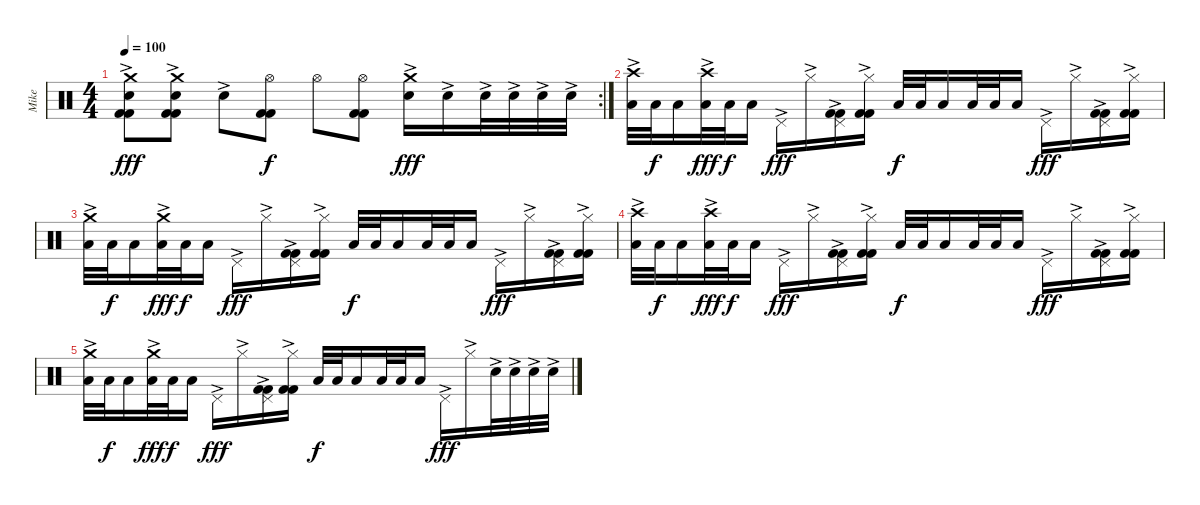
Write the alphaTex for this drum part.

\track ("Mike" "Mike") {instrument percussion}
\staff {score}
\articulation defaults
\rc 2
\ts (4 4)
\tempo 100
\clef neutral
\ks c
("Crash medium (hit)"{ac} "Electric Snare (hit)" "Kick (hit) 2" "Kick (hit) 2").8{dy fff} ("Crash medium (hit)"{ac} "Electric Snare (hit)" "Kick (hit) 2" "Kick (hit) 2").8 "Electric Snare (hit)"{ac}.8 ("Hi-Hat (open)" "Kick (hit) 2" "Kick (hit) 2").8{dy f} "Hi-Hat (open)".8 ("Hi-Hat (open)" "Kick (hit) 2" "Kick (hit) 2").8 ("Crash medium (hit)" "Electric Snare (hit)"{ac}).16{dy fff} "Electric Snare (hit)"{ac}.16 "Electric Snare (hit)"{ac}.32 "Electric Snare (hit)"{ac}.32 "Electric Snare (hit)"{ac}.32 "Electric Snare (hit)"{ac}.32 |
("Crash high (hit)"{ac} "Low Tom (hit)").32 "Low Tom (hit)".32{dy f} "Low Floor Tom (hit)".16 ("Crash high (hit)"{ac} "Low Tom (hit)").32{dy fff} "Low Tom (hit)".32{dy f} "Low Floor Tom (hit)".16 "Pedal Hi-Hat (hit)"{ac}.16{dy fff} "Hi-Hat (closed)"{ac}.16 ("Pedal Hi-Hat (hit)"{ac} "Kick (hit) 2" "Kick (hit) 2").16 ("Hi-Hat (closed)"{ac} "Kick (hit) 2" "Kick (hit) 2").16 "Low Tom (hit)".32{dy f} "Low Tom (hit)".32 "Low Floor Tom (hit)".16 "Low Tom (hit)".32 "Low Tom (hit)".32 "Low Floor Tom (hit)".16 "Pedal Hi-Hat (hit)"{ac}.16{dy fff} "Hi-Hat (closed)"{ac}.16 ("Pedal Hi-Hat (hit)"{ac} "Kick (hit) 2" "Kick (hit) 2").16 ("Hi-Hat (closed)"{ac} "Kick (hit) 2" "Kick (hit) 2").16 |
("Crash medium (hit)"{ac} "Low Tom (hit)").32 "Low Tom (hit)".32{dy f} "Low Floor Tom (hit)".16 ("Crash medium (hit)"{ac} "Low Tom (hit)").32{dy fff} "Low Tom (hit)".32{dy f} "Low Floor Tom (hit)".16 "Pedal Hi-Hat (hit)"{ac}.16{dy fff} "Hi-Hat (closed)"{ac}.16 ("Pedal Hi-Hat (hit)"{ac} "Kick (hit) 2" "Kick (hit) 2").16 ("Hi-Hat (closed)"{ac} "Kick (hit) 2" "Kick (hit) 2").16 "Low Tom (hit)".32{dy f} "Low Tom (hit)".32 "Low Floor Tom (hit)".16 "Low Tom (hit)".32 "Low Tom (hit)".32 "Low Floor Tom (hit)".16 "Pedal Hi-Hat (hit)"{ac}.16{dy fff} "Hi-Hat (closed)"{ac}.16 ("Pedal Hi-Hat (hit)"{ac} "Kick (hit) 2" "Kick (hit) 2").16 ("Hi-Hat (closed)"{ac} "Kick (hit) 2" "Kick (hit) 2").16 |
("Crash high (hit)"{ac} "Low Tom (hit)").32 "Low Tom (hit)".32{dy f} "Low Floor Tom (hit)".16 ("Crash high (hit)"{ac} "Low Tom (hit)").32{dy fff} "Low Tom (hit)".32{dy f} "Low Floor Tom (hit)".16 "Pedal Hi-Hat (hit)"{ac}.16{dy fff} "Hi-Hat (closed)"{ac}.16 ("Pedal Hi-Hat (hit)"{ac} "Kick (hit) 2" "Kick (hit) 2").16 ("Hi-Hat (closed)"{ac} "Kick (hit) 2" "Kick (hit) 2").16 "Low Tom (hit)".32{dy f} "Low Tom (hit)".32 "Low Floor Tom (hit)".16 "Low Tom (hit)".32 "Low Tom (hit)".32 "Low Floor Tom (hit)".16 "Pedal Hi-Hat (hit)"{ac}.16{dy fff} "Hi-Hat (closed)"{ac}.16 ("Pedal Hi-Hat (hit)"{ac} "Kick (hit) 2" "Kick (hit) 2").16 ("Hi-Hat (closed)"{ac} "Kick (hit) 2" "Kick (hit) 2").16 |
("Crash medium (hit)"{ac} "Low Tom (hit)").32 "Low Tom (hit)".32{dy f} "Low Floor Tom (hit)".16 ("Crash medium (hit)"{ac} "Low Tom (hit)").32{dy fff} "Low Tom (hit)".32{dy f} "Low Floor Tom (hit)".16 "Pedal Hi-Hat (hit)"{ac}.16{dy fff} "Hi-Hat (closed)"{ac}.16 ("Pedal Hi-Hat (hit)"{ac} "Kick (hit) 2" "Kick (hit) 2").16 ("Hi-Hat (closed)"{ac} "Kick (hit) 2" "Kick (hit) 2").16 "Low Tom (hit)".32{dy f} "Low Tom (hit)".32 "Low Floor Tom (hit)".16 "Low Tom (hit)".32 "Low Tom (hit)".32 "Low Floor Tom (hit)".16 "Pedal Hi-Hat (hit)"{ac}.16{dy fff} "Hi-Hat (closed)"{ac}.16 "Electric Snare (hit)"{ac}.32 "Electric Snare (hit)"{ac}.32 "Electric Snare (hit)"{ac}.32 "Electric Snare (hit)"{ac}.32
